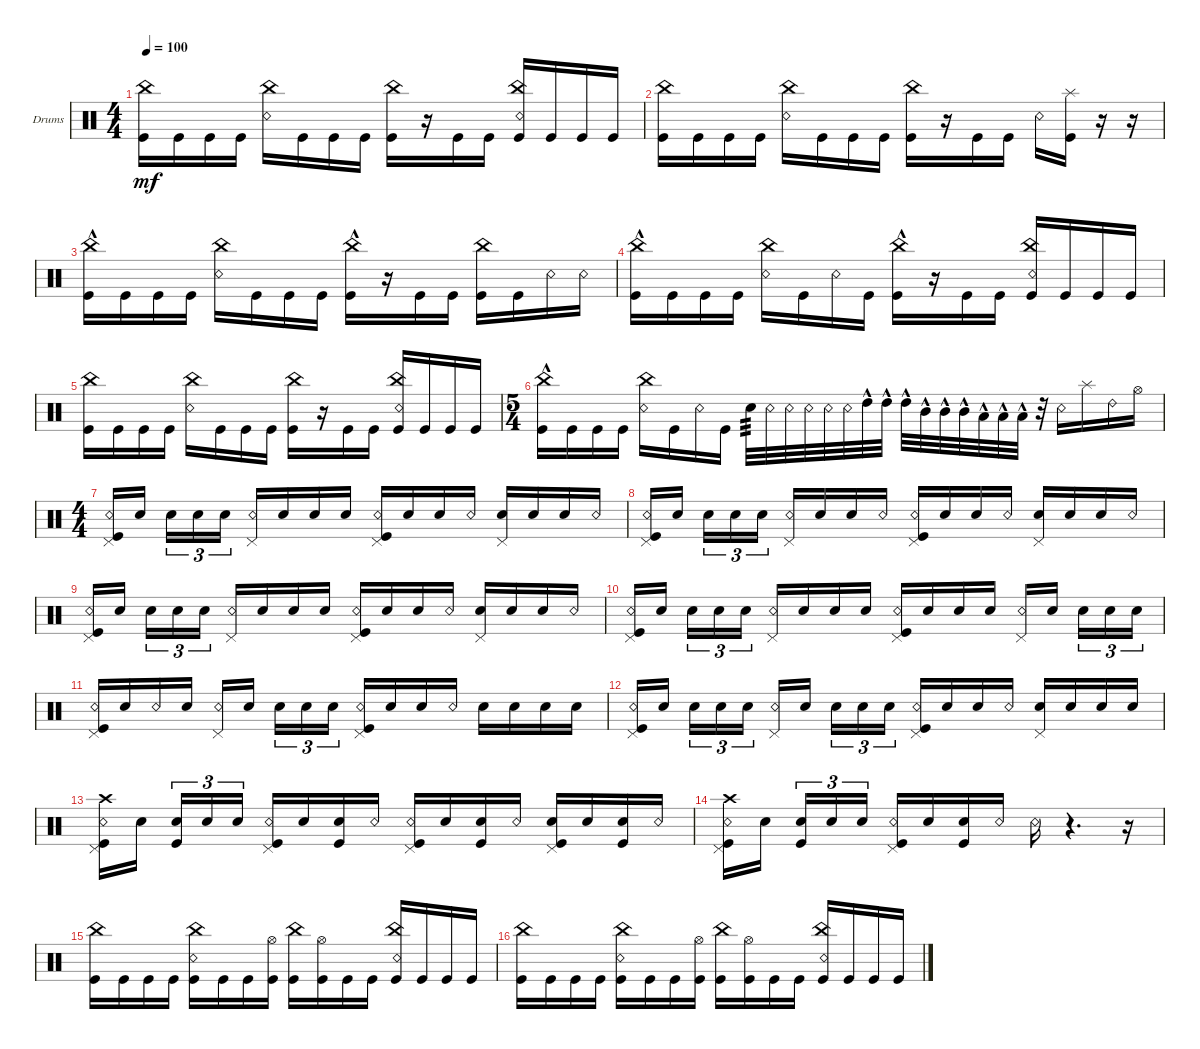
\defaultSystemsLayout 4
\bracketExtendMode groupsimilarinstruments
\firstSystemTrackNameOrientation horizontal
\otherSystemsTrackNameOrientation horizontal
\track ("Drumkit" "Drums") {instrument percussion}
\staff {score}
\articulation defaults
\ts (4 4)
\tempo 100
\clef neutral
\ks c
("Kick (hit)" "China (hit)").16{dy mf} "Kick (hit)".16 "Kick (hit)".16 "Kick (hit)".16 ("China (hit)" "Snare (rim shot)").16 "Kick (hit)".16 "Kick (hit)".16 "Kick (hit)".16 ("Kick (hit)" "China (hit)").16 r.16 "Kick (hit)".16 "Kick (hit)".16 ("Kick (hit)" "China (hit)" "Snare (rim shot)").16 "Kick (hit)".16 "Kick (hit)".16 "Kick (hit)".16 |
("Kick (hit)" "China (hit)").16 "Kick (hit)".16 "Kick (hit)".16 "Kick (hit)".16 ("China (hit)" "Snare (rim shot)").16 "Kick (hit)".16 "Kick (hit)".16 "Kick (hit)".16 ("Kick (hit)" "China (hit)").16 r.16 "Kick (hit)".16 "Kick (hit)".16 "Snare (rim shot)".16 ("Splash (hit)" "Kick (hit)").16 r.16 r.16 |
("Kick (hit)"{hac} "China (hit)").16 "Kick (hit)".16 "Kick (hit)".16 "Kick (hit)".16 ("China (hit)" "Snare (rim shot)").16 "Kick (hit)".16 "Kick (hit)".16 "Kick (hit)".16 ("Kick (hit)"{hac} "China (hit)").16 r.16 "Kick (hit)".16 "Kick (hit)".16 ("Kick (hit)" "China (hit)").16 "Kick (hit)".16 "Snare (rim shot)".16 "Snare (rim shot)".16 |
("Kick (hit)"{hac} "China (hit)").16 "Kick (hit)".16 "Kick (hit)".16 "Kick (hit)".16 ("China (hit)" "Snare (rim shot)").16 "Kick (hit)".16 "Snare (rim shot)".16 "Kick (hit)".16 ("Kick (hit)"{hac} "China (hit)").16 r.16 "Kick (hit)".16 "Kick (hit)".16 ("Kick (hit)" "China (hit)" "Snare (rim shot)").16 "Kick (hit)".16 "Kick (hit)".16 "Kick (hit)".16 |
("Kick (hit)" "China (hit)").16 "Kick (hit)".16 "Kick (hit)".16 "Kick (hit)".16 ("China (hit)" "Snare (rim shot)").16 "Kick (hit)".16 "Kick (hit)".16 "Kick (hit)".16 ("Kick (hit)" "China (hit)").16 r.16 "Kick (hit)".16 "Kick (hit)".16 ("Kick (hit)" "China (hit)" "Snare (rim shot)").16 "Kick (hit)".16 "Kick (hit)".16 "Kick (hit)".16 |
\ts (5 4)
("Kick (hit)"{hac} "China (hit)").16 "Kick (hit)".16 "Kick (hit)".16 "Kick (hit)".16 ("China (hit)" "Snare (rim shot)").16 "Kick (hit)".16 "Snare (rim shot)".16 "Kick (hit)".16 "Snare (hit) 2".32{tp 3} "Snare (rim shot)".32 "Snare (rim shot)".32 "Snare (rim shot)".32 "Snare (rim shot)".32 "Snare (rim shot)".32 "High Tom (hit)"{hac}.32 "High Tom (hit)"{hac}.32 "High Tom (hit)"{hac}.32 "Mid Tom (hit)"{hac}.32 "Mid Tom (hit)"{hac}.32 "Mid Tom (hit)"{hac}.32 "Low Tom (hit)"{hac}.32 "Low Tom (hit)"{hac}.32 "Low Tom (hit)"{hac}.32 r.32 "Snare (rim shot)".16 "Splash (hit)".16 "Ride (bell) 2".16 "Hi-Hat (open)".16 |
\ts (4 4)
("Snare (rim shot)" "Pedal Hi-Hat (hit)" "Kick (hit)").16 "Snare (hit) 2".16 "Snare (hit) 2".16{tu (3 2)} "Snare (hit) 2".16{tu (3 2)} "Snare (hit) 2".16{tu (3 2)} ("Snare (rim shot)" "Pedal Hi-Hat (hit)").16 "Snare (hit) 2".16 "Snare (hit) 2".16 "Snare (hit) 2".16 ("Snare (rim shot)" "Pedal Hi-Hat (hit)" "Kick (hit)").16 "Snare (hit) 2".16 "Snare (hit) 2".16 "Snare (rim shot)".16 ("Snare (hit) 2" "Pedal Hi-Hat (hit)").16 "Snare (hit) 2".16 "Snare (hit) 2".16 "Snare (rim shot)".16 |
("Snare (rim shot)" "Pedal Hi-Hat (hit)" "Kick (hit)").16 "Snare (hit) 2".16 "Snare (hit) 2".16{tu (3 2)} "Snare (hit) 2".16{tu (3 2)} "Snare (hit) 2".16{tu (3 2)} ("Snare (rim shot)" "Pedal Hi-Hat (hit)").16 "Snare (hit) 2".16 "Snare (hit) 2".16 "Snare (rim shot)".16 ("Snare (rim shot)" "Pedal Hi-Hat (hit)" "Kick (hit)").16 "Snare (hit) 2".16 "Snare (hit) 2".16 "Snare (rim shot)".16 ("Snare (hit) 2" "Pedal Hi-Hat (hit)").16 "Snare (hit) 2".16 "Snare (hit) 2".16 "Snare (rim shot)".16 |
("Snare (rim shot)" "Pedal Hi-Hat (hit)" "Kick (hit)").16 "Snare (hit) 2".16 "Snare (hit) 2".16{tu (3 2)} "Snare (hit) 2".16{tu (3 2)} "Snare (hit) 2".16{tu (3 2)} ("Snare (rim shot)" "Pedal Hi-Hat (hit)").16 "Snare (hit) 2".16 "Snare (hit) 2".16 "Snare (hit) 2".16 ("Snare (rim shot)" "Pedal Hi-Hat (hit)" "Kick (hit)").16 "Snare (hit) 2".16 "Snare (hit) 2".16 "Snare (rim shot)".16 ("Snare (hit) 2" "Pedal Hi-Hat (hit)").16 "Snare (hit) 2".16 "Snare (hit) 2".16 "Snare (rim shot)".16 |
("Snare (rim shot)" "Pedal Hi-Hat (hit)" "Kick (hit)").16 "Snare (hit) 2".16 "Snare (hit) 2".16{tu (3 2)} "Snare (hit) 2".16{tu (3 2)} "Snare (hit) 2".16{tu (3 2)} ("Snare (rim shot)" "Pedal Hi-Hat (hit)").16 "Snare (hit) 2".16 "Snare (hit) 2".16 "Snare (hit) 2".16 ("Snare (rim shot)" "Pedal Hi-Hat (hit)" "Kick (hit)").16 "Snare (hit) 2".16 "Snare (hit) 2".16 "Snare (hit) 2".16 ("Snare (rim shot)" "Pedal Hi-Hat (hit)").16 "Snare (hit) 2".16 "Snare (hit) 2".16{tu (3 2)} "Snare (hit) 2".16{tu (3 2)} "Snare (hit) 2".16{tu (3 2)} |
("Snare (rim shot)" "Kick (hit)" "Pedal Hi-Hat (hit)").16 "Snare (hit) 2".16 "Snare (rim shot)".16 "Snare (hit) 2".16 ("Snare (rim shot)" "Pedal Hi-Hat (hit)").16 "Snare (hit) 2".16 "Snare (hit) 2".16{tu (3 2)} "Snare (hit) 2".16{tu (3 2)} "Snare (hit) 2".16{tu (3 2)} ("Snare (rim shot)" "Kick (hit)" "Pedal Hi-Hat (hit)").16 "Snare (hit) 2".16 "Snare (hit) 2".16 "Snare (rim shot)".16 "Snare (hit) 2".16 "Snare (hit) 2".16 "Snare (hit) 2".16 "Snare (hit) 2".16 |
("Snare (rim shot)" "Pedal Hi-Hat (hit)" "Kick (hit)").16 "Snare (hit) 2".16 "Snare (hit) 2".16{tu (3 2)} "Snare (hit) 2".16{tu (3 2)} "Snare (hit) 2".16{tu (3 2)} ("Snare (rim shot)" "Pedal Hi-Hat (hit)").16 "Snare (hit) 2".16 "Snare (hit) 2".16{tu (3 2)} "Snare (hit) 2".16{tu (3 2)} "Snare (hit) 2".16{tu (3 2)} ("Snare (rim shot)" "Pedal Hi-Hat (hit)" "Kick (hit)").16 "Snare (hit) 2".16 "Snare (hit) 2".16 "Snare (rim shot)".16 ("Snare (hit) 2" "Pedal Hi-Hat (hit)").16 "Snare (hit) 2".16 "Snare (hit) 2".16 "Snare (hit) 2".16 |
("Snare (rim shot)" "Pedal Hi-Hat (hit)" "Kick (hit)" "Crash high (hit)").16 "Snare (hit) 2".16 ("Snare (hit) 2" "Kick (hit)").16{tu (3 2)} "Snare (hit) 2".16{tu (3 2)} "Snare (hit) 2".16{tu (3 2)} ("Snare (rim shot)" "Pedal Hi-Hat (hit)" "Kick (hit)").16 "Snare (hit) 2".16 ("Snare (hit) 2" "Kick (hit)").16 "Snare (rim shot)".16 ("Snare (rim shot)" "Pedal Hi-Hat (hit)" "Kick (hit)").16 "Snare (hit) 2".16 ("Snare (hit) 2" "Kick (hit)").16 "Snare (rim shot)".16 ("Snare (hit) 2" "Pedal Hi-Hat (hit)" "Kick (hit)").16 "Snare (hit) 2".16 ("Snare (hit) 2" "Kick (hit)").16 "Snare (rim shot)".16 |
("Snare (rim shot)" "Pedal Hi-Hat (hit)" "Kick (hit)" "Crash high (hit)").16 "Snare (hit) 2".16 ("Snare (hit) 2" "Kick (hit)").16{tu (3 2)} "Snare (hit) 2".16{tu (3 2)} "Snare (hit) 2".16{tu (3 2)} ("Snare (rim shot)" "Pedal Hi-Hat (hit)" "Kick (hit)").16 "Snare (hit) 2".16 ("Snare (hit) 2" "Kick (hit)").16 "Snare (rim shot)".16 "Snare (rim shot)".16 r.4{d} r.16 |
("Kick (hit)" "China (hit)").16 "Kick (hit)".16 "Kick (hit)".16 "Kick (hit)".16 ("Kick (hit)" "Snare (rim shot)" "China (hit)").16 "Kick (hit)".16 "Kick (hit)".16 ("Kick (hit)" "Hi-Hat (open)").16 ("Kick (hit)" "China (hit)").16 ("Kick (hit)" "Hi-Hat (open)").16 "Kick (hit)".16 "Kick (hit)".16 ("Kick (hit)" "China (hit)" "Snare (rim shot)").16 "Kick (hit)".16 "Kick (hit)".16 "Kick (hit)".16 |
("Kick (hit)" "China (hit)").16 "Kick (hit)".16 "Kick (hit)".16 "Kick (hit)".16 ("Kick (hit)" "Snare (rim shot)" "China (hit)").16 "Kick (hit)".16 "Kick (hit)".16 ("Kick (hit)" "Hi-Hat (open)").16 ("Kick (hit)" "China (hit)").16 ("Kick (hit)" "Hi-Hat (open)").16 "Kick (hit)".16 "Kick (hit)".16 ("Kick (hit)" "China (hit)" "Snare (rim shot)").16 "Kick (hit)".16 "Kick (hit)".16 "Kick (hit)".16
